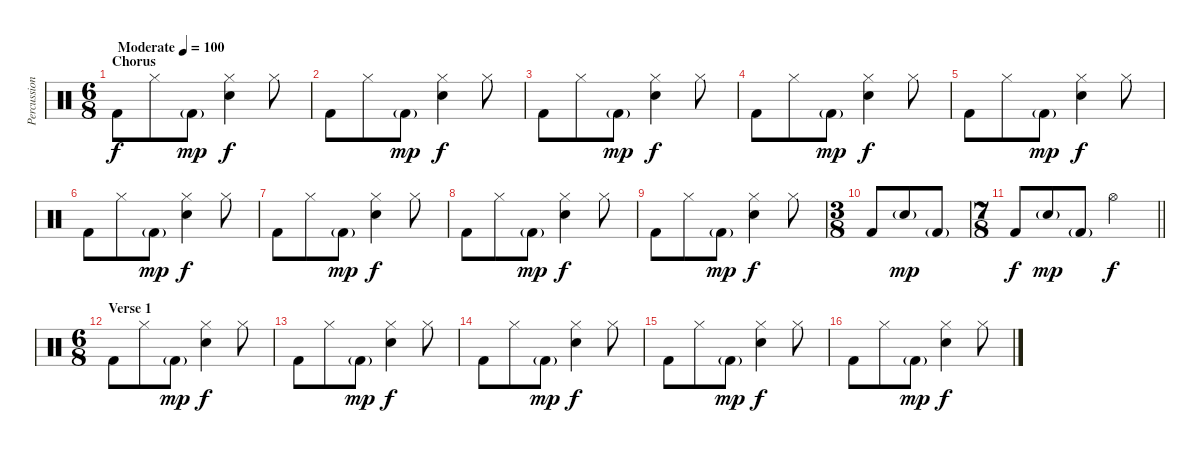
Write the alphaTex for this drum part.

\track ("Percussion" "Percussion") {instrument percussion}
\staff {score}
\articulation defaults
\ts (6 8)
\section ("" "Chorus")
\tempo (100 "Moderate")
\clef neutral
\ks c "Kick (hit) 2".8{dy f} "Hi-Hat (closed)".8 "Kick (hit) 2"{g}.8{dy mp}
("Hi-Hat (closed)" "Snare (hit) 2").4{dy f} "Hi-Hat (closed)".8 |
"Kick (hit) 2".8 "Hi-Hat (closed)".8 "Kick (hit) 2"{g}.8{dy mp} ("Hi-Hat (closed)" "Snare (hit) 2").4{dy f} "Hi-Hat (closed)".8 |
"Kick (hit) 2".8 "Hi-Hat (closed)".8 "Kick (hit) 2"{g}.8{dy mp} ("Hi-Hat (closed)" "Snare (hit) 2").4{dy f} "Hi-Hat (closed)".8 |
"Kick (hit) 2".8 "Hi-Hat (closed)".8 "Kick (hit) 2"{g}.8{dy mp} ("Hi-Hat (closed)" "Snare (hit) 2").4{dy f} "Hi-Hat (closed)".8 |
"Kick (hit) 2".8 "Hi-Hat (closed)".8 "Kick (hit) 2"{g}.8{dy mp} ("Hi-Hat (closed)" "Snare (hit) 2").4{dy f} "Hi-Hat (closed)".8 |
"Kick (hit) 2".8 "Hi-Hat (closed)".8 "Kick (hit) 2"{g}.8{dy mp} ("Hi-Hat (closed)" "Snare (hit) 2").4{dy f} "Hi-Hat (closed)".8 |
"Kick (hit) 2".8 "Hi-Hat (closed)".8 "Kick (hit) 2"{g}.8{dy mp} ("Hi-Hat (closed)" "Snare (hit) 2").4{dy f} "Hi-Hat (closed)".8 |
"Kick (hit) 2".8 "Hi-Hat (closed)".8 "Kick (hit) 2"{g}.8{dy mp} ("Hi-Hat (closed)" "Snare (hit) 2").4{dy f} "Hi-Hat (closed)".8 |
"Kick (hit) 2".8 "Hi-Hat (closed)".8 "Kick (hit) 2"{g}.8{dy mp} ("Hi-Hat (closed)" "Snare (hit) 2").4{dy f} "Hi-Hat (closed)".8 |
\ts (3 8)
"Kick (hit) 2".8 "Snare (hit) 2"{g}.8{dy mp} "Kick (hit) 2"{g}.8 |
\ts (7 8)
\barLineRight lightlight "Kick (hit) 2".8{dy f} "Snare (hit) 2"{g}.8{dy mp} "Kick (hit) 2"{g}.8 "Hi-Hat (open)".2{dy f}
|
\ts (6 8)
\section ("" "Verse 1")
"Kick (hit) 2".8 "Hi-Hat (closed)".8 "Kick (hit) 2"{g}.8{dy mp} ("Hi-Hat (closed)" "Snare (hit) 2").4{dy f} "Hi-Hat (closed)".8 |
"Kick (hit) 2".8 "Hi-Hat (closed)".8 "Kick (hit) 2"{g}.8{dy mp} ("Hi-Hat (closed)" "Snare (hit) 2").4{dy f} "Hi-Hat (closed)".8 |
"Kick (hit) 2".8 "Hi-Hat (closed)".8 "Kick (hit) 2"{g}.8{dy mp} ("Hi-Hat (closed)" "Snare (hit) 2").4{dy f} "Hi-Hat (closed)".8 |
"Kick (hit) 2".8 "Hi-Hat (closed)".8 "Kick (hit) 2"{g}.8{dy mp} ("Hi-Hat (closed)" "Snare (hit) 2").4{dy f} "Hi-Hat (closed)".8 |
"Kick (hit) 2".8 "Hi-Hat (closed)".8 "Kick (hit) 2"{g}.8{dy mp} ("Hi-Hat (closed)" "Snare (hit) 2").4{dy f} "Hi-Hat (closed)".8
